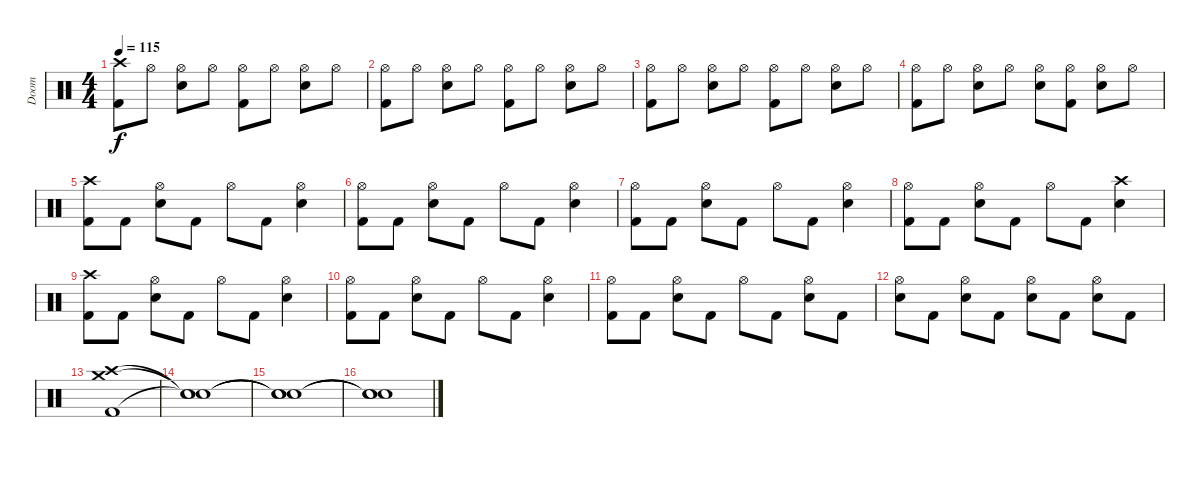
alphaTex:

\track ("Doom" "Doom") {instrument percussion}
\staff {score}
\articulation defaults
\ts (4 4)
\tempo 115
\clef neutral
\ks c
("Crash high (hit)" "Kick (hit) 2").8{dy f} "Hi-Hat (open)".8 ("Hi-Hat (open)" "Electric Snare (hit)").8 "Hi-Hat (open)".8 ("Hi-Hat (open)" "Kick (hit) 2").8 "Hi-Hat (open)".8 ("Hi-Hat (open)" "Electric Snare (hit)").8 "Hi-Hat (open)".8 |
("Hi-Hat (open)" "Kick (hit) 2").8 "Hi-Hat (open)".8 ("Hi-Hat (open)" "Electric Snare (hit)").8 "Hi-Hat (open)".8 ("Hi-Hat (open)" "Kick (hit) 2").8 "Hi-Hat (open)".8 ("Hi-Hat (open)" "Electric Snare (hit)").8 "Hi-Hat (open)".8 |
("Hi-Hat (open)" "Kick (hit) 2").8 "Hi-Hat (open)".8 ("Hi-Hat (open)" "Electric Snare (hit)").8 "Hi-Hat (open)".8 ("Hi-Hat (open)" "Kick (hit) 2").8 "Hi-Hat (open)".8 ("Hi-Hat (open)" "Electric Snare (hit)").8 "Hi-Hat (open)".8 |
("Hi-Hat (open)" "Kick (hit) 2").8 "Hi-Hat (open)".8 ("Hi-Hat (open)" "Electric Snare (hit)").8 "Hi-Hat (open)".8 ("Hi-Hat (open)" "Electric Snare (hit)").8 ("Hi-Hat (open)" "Kick (hit) 2").8 ("Hi-Hat (open)" "Electric Snare (hit)").8 "Hi-Hat (open)".8 |
("Crash high (hit)" "Kick (hit) 2").8 "Kick (hit) 2".8 ("Hi-Hat (open)" "Electric Snare (hit)").8 "Kick (hit) 2".8 "Hi-Hat (open)".8 "Kick (hit) 2".8 ("Hi-Hat (open)" "Electric Snare (hit)").4 |
("Hi-Hat (open)" "Kick (hit) 2").8 "Kick (hit) 2".8 ("Hi-Hat (open)" "Electric Snare (hit)").8 "Kick (hit) 2".8 "Hi-Hat (open)".8 "Kick (hit) 2".8 ("Hi-Hat (open)" "Electric Snare (hit)").4 |
("Hi-Hat (open)" "Kick (hit) 2").8 "Kick (hit) 2".8 ("Hi-Hat (open)" "Electric Snare (hit)").8 "Kick (hit) 2".8 "Hi-Hat (open)".8 "Kick (hit) 2".8 ("Hi-Hat (open)" "Electric Snare (hit)").4 |
("Hi-Hat (open)" "Kick (hit) 2").8 "Kick (hit) 2".8 ("Hi-Hat (open)" "Electric Snare (hit)").8 "Kick (hit) 2".8 "Hi-Hat (open)".8 "Kick (hit) 2".8 ("Crash high (hit)" "Electric Snare (hit)").4 |
("Crash high (hit)" "Kick (hit) 2").8 "Kick (hit) 2".8 ("Hi-Hat (open)" "Electric Snare (hit)").8 "Kick (hit) 2".8 "Hi-Hat (open)".8 "Kick (hit) 2".8 ("Hi-Hat (open)" "Electric Snare (hit)").4 |
("Hi-Hat (open)" "Kick (hit) 2").8 "Kick (hit) 2".8 ("Hi-Hat (open)" "Electric Snare (hit)").8 "Kick (hit) 2".8 "Hi-Hat (open)".8 "Kick (hit) 2".8 ("Hi-Hat (open)" "Electric Snare (hit)").4 |
("Hi-Hat (open)" "Kick (hit) 2").8 "Kick (hit) 2".8 ("Hi-Hat (open)" "Electric Snare (hit)").8 "Kick (hit) 2".8 "Hi-Hat (open)".8 "Kick (hit) 2".8 ("Hi-Hat (open)" "Electric Snare (hit)").8 "Kick (hit) 2".8 |
("Hi-Hat (open)" "Electric Snare (hit)").8 "Kick (hit) 2".8 ("Hi-Hat (open)" "Electric Snare (hit)").8 "Kick (hit) 2".8 ("Hi-Hat (open)" "Electric Snare (hit)").8 "Kick (hit) 2".8 ("Hi-Hat (open)" "Electric Snare (hit)").8 "Kick (hit) 2".8 |
("Crash medium (hit)" "Crash high (hit)" "Kick (hit) 2").1 |
("Snare (hit)"{t} "Snare (hit)"{t} "Snare (hit)"{t}).1 |
("Snare (hit)"{t} "Snare (hit)"{t} "Snare (hit)"{t}).1 |
("Snare (hit)"{t} "Snare (hit)"{t} "Snare (hit)"{t}).1
